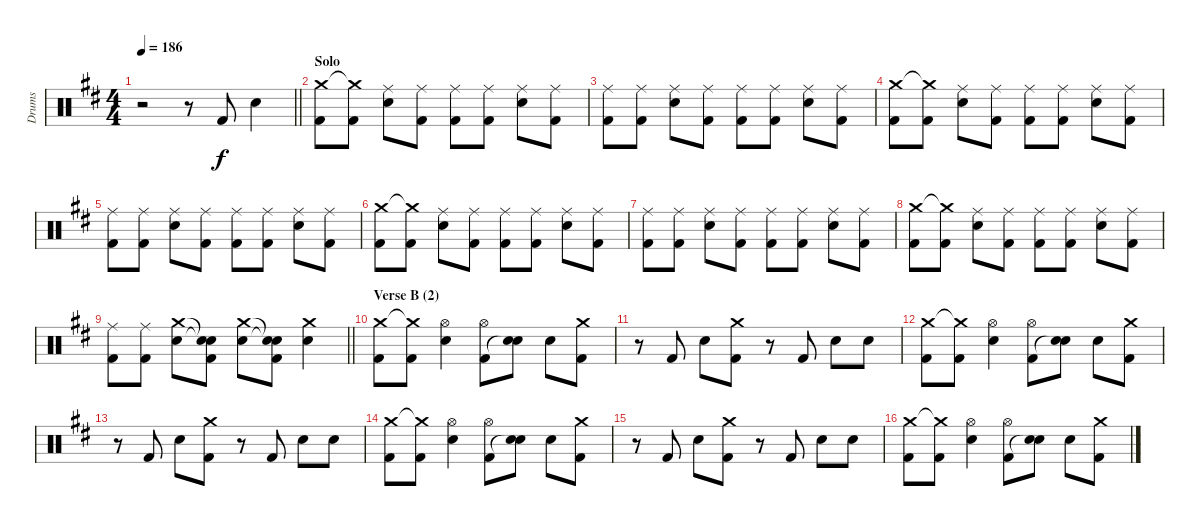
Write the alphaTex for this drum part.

\track ("Drums" "Drums") {instrument percussion}
\staff {score}
\articulation defaults
\ts (4 4)
\tempo 186
\clef neutral
\barLineRight lightlight
\ks d
r.2{dy f} r.8 "Kick (hit) 2".8 "Electric Snare (hit)".4 |
\section ("" "Solo")
("Crash medium (hit)" "Kick (hit) 2").8 ("Crash medium (hit)"{t} "Kick (hit) 2").8 ("Ride (middle)" "Electric Snare (hit)").8 ("Ride (middle)" "Kick (hit) 2").8 ("Ride (middle)" "Kick (hit) 2").8 ("Ride (middle)" "Kick (hit) 2").8 ("Ride (middle)" "Electric Snare (hit)").8 ("Ride (middle)" "Kick (hit) 2").8 |
("Ride (middle)" "Kick (hit) 2").8 ("Ride (middle)" "Kick (hit) 2").8 ("Ride (middle)" "Electric Snare (hit)").8 ("Ride (middle)" "Kick (hit) 2").8 ("Ride (middle)" "Kick (hit) 2").8 ("Ride (middle)" "Kick (hit) 2").8 ("Ride (middle)" "Electric Snare (hit)").8 ("Ride (middle)" "Kick (hit) 2").8 |
("Crash medium (hit)" "Kick (hit) 2").8 ("Crash medium (hit)"{t} "Kick (hit) 2").8 ("Ride (middle)" "Electric Snare (hit)").8 ("Ride (middle)" "Kick (hit) 2").8 ("Ride (middle)" "Kick (hit) 2").8 ("Ride (middle)" "Kick (hit) 2").8 ("Ride (middle)" "Electric Snare (hit)").8 ("Ride (middle)" "Kick (hit) 2").8 |
("Ride (middle)" "Kick (hit) 2").8 ("Ride (middle)" "Kick (hit) 2").8 ("Ride (middle)" "Electric Snare (hit)").8 ("Ride (middle)" "Kick (hit) 2").8 ("Ride (middle)" "Kick (hit) 2").8 ("Ride (middle)" "Kick (hit) 2").8 ("Ride (middle)" "Electric Snare (hit)").8 ("Ride (middle)" "Kick (hit) 2").8 |
("Crash medium (hit)" "Kick (hit) 2").8 ("Crash medium (hit)"{t} "Kick (hit) 2").8 ("Ride (middle)" "Electric Snare (hit)").8 ("Ride (middle)" "Kick (hit) 2").8 ("Ride (middle)" "Kick (hit) 2").8 ("Ride (middle)" "Kick (hit) 2").8 ("Ride (middle)" "Electric Snare (hit)").8 ("Ride (middle)" "Kick (hit) 2").8 |
("Ride (middle)" "Kick (hit) 2").8 ("Ride (middle)" "Kick (hit) 2").8 ("Ride (middle)" "Electric Snare (hit)").8 ("Ride (middle)" "Kick (hit) 2").8 ("Ride (middle)" "Kick (hit) 2").8 ("Ride (middle)" "Kick (hit) 2").8 ("Ride (middle)" "Electric Snare (hit)").8 ("Ride (middle)" "Kick (hit) 2").8 |
("Crash medium (hit)" "Kick (hit) 2").8 ("Crash medium (hit)"{t} "Kick (hit) 2").8 ("Ride (middle)" "Electric Snare (hit)").8 ("Ride (middle)" "Kick (hit) 2").8 ("Ride (middle)" "Kick (hit) 2").8 ("Ride (middle)" "Kick (hit) 2").8 ("Ride (middle)" "Electric Snare (hit)").8 ("Ride (middle)" "Kick (hit) 2").8 |
\barLineRight lightlight
("Ride (middle)" "Kick (hit) 2").8 ("Ride (middle)" "Kick (hit) 2").8 ("Crash medium (hit)" "Electric Snare (hit)").8 ("Snare (hit)"{t} "Snare (hit)"{t} "Kick (hit) 2").8 ("Crash medium (hit)" "Electric Snare (hit)").8 ("Snare (hit)"{t} "Snare (hit)"{t} "Kick (hit) 2").8 ("Crash medium (hit)" "Electric Snare (hit)").4 |
\section ("" "Verse B (2)")
("Crash medium (hit)" "Kick (hit) 2").8 ("Crash medium (hit)"{t} "Kick (hit) 2").8 ("Hi-Hat (open)" "Electric Snare (hit)").4 ("Hi-Hat (open)" "Kick (hit) 2").8 ("Electric Snare (hit)" "Snare (hit)"{t}).8 "Electric Snare (hit)".8 ("Crash medium (hit)" "Kick (hit) 2").8 |
r.8 "Kick (hit) 2".8 "Electric Snare (hit)".8 ("Crash medium (hit)" "Kick (hit) 2").8 r.8 "Kick (hit) 2".8 "Electric Snare (hit)".8 "Electric Snare (hit)".8 |
("Crash medium (hit)" "Kick (hit) 2").8 ("Crash medium (hit)"{t} "Kick (hit) 2").8 ("Hi-Hat (open)" "Electric Snare (hit)").4 ("Hi-Hat (open)" "Kick (hit) 2").8 ("Electric Snare (hit)" "Snare (hit)"{t}).8 "Electric Snare (hit)".8 ("Crash medium (hit)" "Kick (hit) 2").8 |
r.8 "Kick (hit) 2".8 "Electric Snare (hit)".8 ("Crash medium (hit)" "Kick (hit) 2").8 r.8 "Kick (hit) 2".8 "Electric Snare (hit)".8 "Electric Snare (hit)".8 |
("Crash medium (hit)" "Kick (hit) 2").8 ("Crash medium (hit)"{t} "Kick (hit) 2").8 ("Hi-Hat (open)" "Electric Snare (hit)").4 ("Hi-Hat (open)" "Kick (hit) 2").8 ("Electric Snare (hit)" "Snare (hit)"{t}).8 "Electric Snare (hit)".8 ("Crash medium (hit)" "Kick (hit) 2").8 |
r.8 "Kick (hit) 2".8 "Electric Snare (hit)".8 ("Crash medium (hit)" "Kick (hit) 2").8 r.8 "Kick (hit) 2".8 "Electric Snare (hit)".8 "Electric Snare (hit)".8 |
("Crash medium (hit)" "Kick (hit) 2").8 ("Crash medium (hit)"{t} "Kick (hit) 2").8 ("Hi-Hat (open)" "Electric Snare (hit)").4 ("Hi-Hat (open)" "Kick (hit) 2").8 ("Electric Snare (hit)" "Snare (hit)"{t}).8 "Electric Snare (hit)".8 ("Crash medium (hit)" "Kick (hit) 2").8
